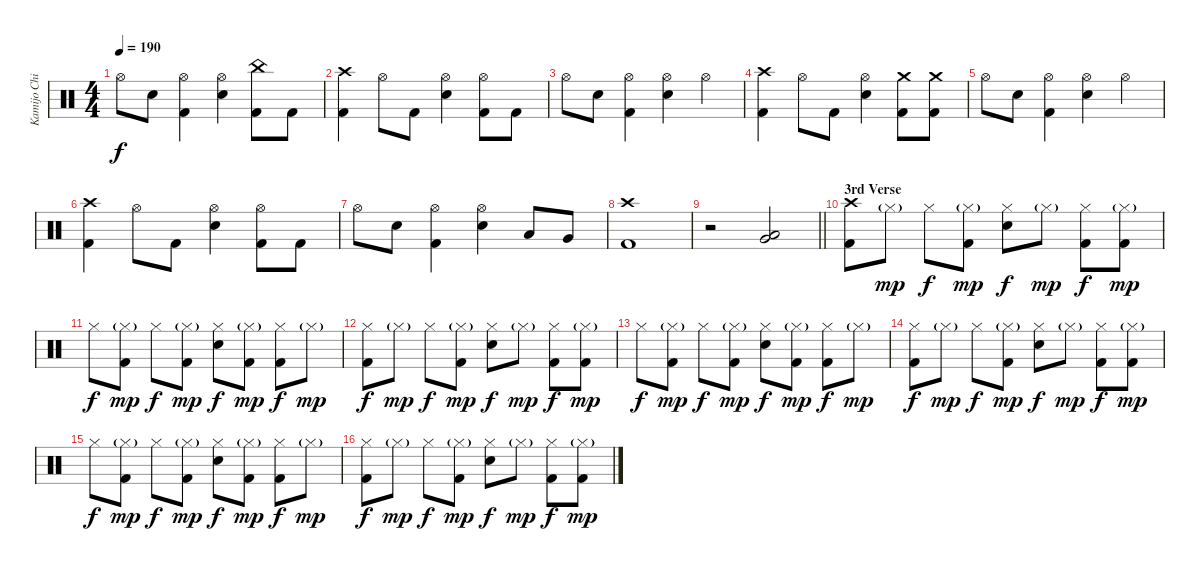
\track ("Kamijo Chihiro" "Kamijo Chi") {instrument percussion}
\staff {score}
\articulation defaults
\ts (4 4)
\tempo 190
\clef neutral
\ks c "Hi-Hat (open)".8{dy f} "Snare (hit) 2".8
("Hi-Hat (open)" "Kick (hit) 2").4 ("Hi-Hat (open)" "Snare (hit) 2").4 ("China (hit)" "Kick (hit) 2").8 "Kick (hit) 2".8 |
("Crash high (hit)" "Kick (hit) 2").4 "Hi-Hat (open)".8 "Kick (hit) 2".8 ("Hi-Hat (open)" "Snare (hit) 2").4 ("Hi-Hat (open)" "Kick (hit) 2").8 "Kick (hit) 2".8 |
"Hi-Hat (open)".8 "Snare (hit) 2".8 ("Hi-Hat (open)" "Kick (hit) 2").4 ("Hi-Hat (open)" "Snare (hit) 2").4 "Hi-Hat (open)".4 |
("Crash high (hit)" "Kick (hit) 2").4 "Hi-Hat (open)".8 "Kick (hit) 2".8 ("Hi-Hat (open)" "Snare (hit) 2").4 ("Crash medium (hit)" "Kick (hit) 2").8 ("Crash medium (hit)" "Kick (hit) 2").8 |
"Hi-Hat (open)".8 "Snare (hit) 2".8 ("Hi-Hat (open)" "Kick (hit) 2").4 ("Hi-Hat (open)" "Snare (hit) 2").4 "Hi-Hat (open)".4 |
("Crash high (hit)" "Kick (hit) 2").4 "Hi-Hat (open)".8 "Kick (hit) 2".8 ("Hi-Hat (open)" "Snare (hit) 2").4 ("Hi-Hat (open)" "Kick (hit) 2").8 "Kick (hit) 2".8 |
"Hi-Hat (open)".8 "Snare (hit) 2".8 ("Hi-Hat (open)" "Kick (hit) 2").4 ("Hi-Hat (open)" "Snare (hit) 2").4 "Low Tom (hit)".8 "Very Low Tom (hit)".8 |
("Crash high (hit)" "Kick (hit) 2").1 |
\barLineRight lightlight
r.2 ("Very Low Tom (hit)" "Low Floor Tom (hit)").2 |
\section ("" "3rd Verse")
("Crash high (hit)" "Kick (hit) 2").8 "Hi-Hat (closed)"{g}.8{dy mp} "Hi-Hat (closed)".8{dy f} ("Hi-Hat (closed)"{g} "Kick (hit) 2").8{dy mp} ("Hi-Hat (closed)" "Snare (hit) 2").8{dy f} "Hi-Hat (closed)"{g}.8{dy mp} ("Hi-Hat (closed)" "Kick (hit) 2").8{dy f} ("Hi-Hat (closed)"{g} "Kick (hit) 2").8{dy mp} |
"Hi-Hat (closed)".8{dy f} ("Hi-Hat (closed)"{g} "Kick (hit) 2").8{dy mp} "Hi-Hat (closed)".8{dy f} ("Hi-Hat (closed)"{g} "Kick (hit) 2").8{dy mp} ("Hi-Hat (closed)" "Snare (hit) 2").8{dy f} ("Hi-Hat (closed)"{g} "Kick (hit) 2").8{dy mp} ("Hi-Hat (closed)" "Kick (hit) 2").8{dy f} "Hi-Hat (closed)"{g}.8{dy mp} |
("Hi-Hat (closed)" "Kick (hit) 2").8{dy f} "Hi-Hat (closed)"{g}.8{dy mp} "Hi-Hat (closed)".8{dy f} ("Hi-Hat (closed)"{g} "Kick (hit) 2").8{dy mp} ("Hi-Hat (closed)" "Snare (hit) 2").8{dy f} "Hi-Hat (closed)"{g}.8{dy mp} ("Hi-Hat (closed)" "Kick (hit) 2").8{dy f} ("Hi-Hat (closed)"{g} "Kick (hit) 2").8{dy mp} |
"Hi-Hat (closed)".8{dy f} ("Hi-Hat (closed)"{g} "Kick (hit) 2").8{dy mp} "Hi-Hat (closed)".8{dy f} ("Hi-Hat (closed)"{g} "Kick (hit) 2").8{dy mp} ("Hi-Hat (closed)" "Snare (hit) 2").8{dy f} ("Hi-Hat (closed)"{g} "Kick (hit) 2").8{dy mp} ("Hi-Hat (closed)" "Kick (hit) 2").8{dy f} "Hi-Hat (closed)"{g}.8{dy mp} |
("Hi-Hat (closed)" "Kick (hit) 2").8{dy f} "Hi-Hat (closed)"{g}.8{dy mp} "Hi-Hat (closed)".8{dy f} ("Hi-Hat (closed)"{g} "Kick (hit) 2").8{dy mp} ("Hi-Hat (closed)" "Snare (hit) 2").8{dy f} "Hi-Hat (closed)"{g}.8{dy mp} ("Hi-Hat (closed)" "Kick (hit) 2").8{dy f} ("Hi-Hat (closed)"{g} "Kick (hit) 2").8{dy mp} |
"Hi-Hat (closed)".8{dy f} ("Hi-Hat (closed)"{g} "Kick (hit) 2").8{dy mp} "Hi-Hat (closed)".8{dy f} ("Hi-Hat (closed)"{g} "Kick (hit) 2").8{dy mp} ("Hi-Hat (closed)" "Snare (hit) 2").8{dy f} ("Hi-Hat (closed)"{g} "Kick (hit) 2").8{dy mp} ("Hi-Hat (closed)" "Kick (hit) 2").8{dy f} "Hi-Hat (closed)"{g}.8{dy mp} |
("Hi-Hat (closed)" "Kick (hit) 2").8{dy f} "Hi-Hat (closed)"{g}.8{dy mp} "Hi-Hat (closed)".8{dy f} ("Hi-Hat (closed)"{g} "Kick (hit) 2").8{dy mp} ("Hi-Hat (closed)" "Snare (hit) 2").8{dy f} "Hi-Hat (closed)"{g}.8{dy mp} ("Hi-Hat (closed)" "Kick (hit) 2").8{dy f} ("Hi-Hat (closed)"{g} "Kick (hit) 2").8{dy mp}
